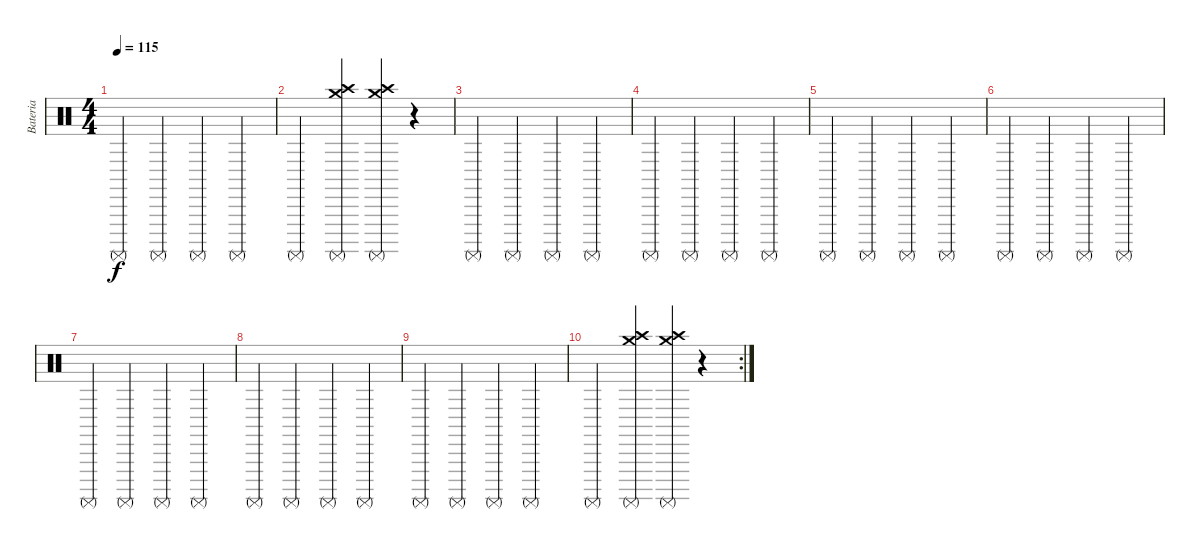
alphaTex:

\track ("Bateria" "Bateria") {instrument percussion}
\staff {score}
\articulation defaults
\ts (4 4)
\tempo 115
\clef neutral
\ks c "Surdo (mute)".4{dy f} "Surdo (mute)".4 "Surdo (mute)".4 "Surdo (mute)".4
|
"Surdo (mute)".4 ("Crash high (hit)" "Crash medium (hit)" "Surdo (mute)").4 ("Crash high (hit)" "Crash medium (hit)" "Surdo (mute)").4 r.4 |
"Surdo (mute)".4 "Surdo (mute)".4 "Surdo (mute)".4 "Surdo (mute)".4 |
"Surdo (mute)".4 "Surdo (mute)".4 "Surdo (mute)".4 "Surdo (mute)".4 |
"Surdo (mute)".4 "Surdo (mute)".4 "Surdo (mute)".4 "Surdo (mute)".4 |
"Surdo (mute)".4 "Surdo (mute)".4 "Surdo (mute)".4 "Surdo (mute)".4 |
"Surdo (mute)".4 "Surdo (mute)".4 "Surdo (mute)".4 "Surdo (mute)".4 |
"Surdo (mute)".4 "Surdo (mute)".4 "Surdo (mute)".4 "Surdo (mute)".4 |
"Surdo (mute)".4 "Surdo (mute)".4 "Surdo (mute)".4 "Surdo (mute)".4 |
\rc 2 "Surdo (mute)".4
("Crash high (hit)" "Crash medium (hit)" "Surdo (mute)").4 ("Crash high (hit)" "Crash medium (hit)" "Surdo (mute)").4 r.4
